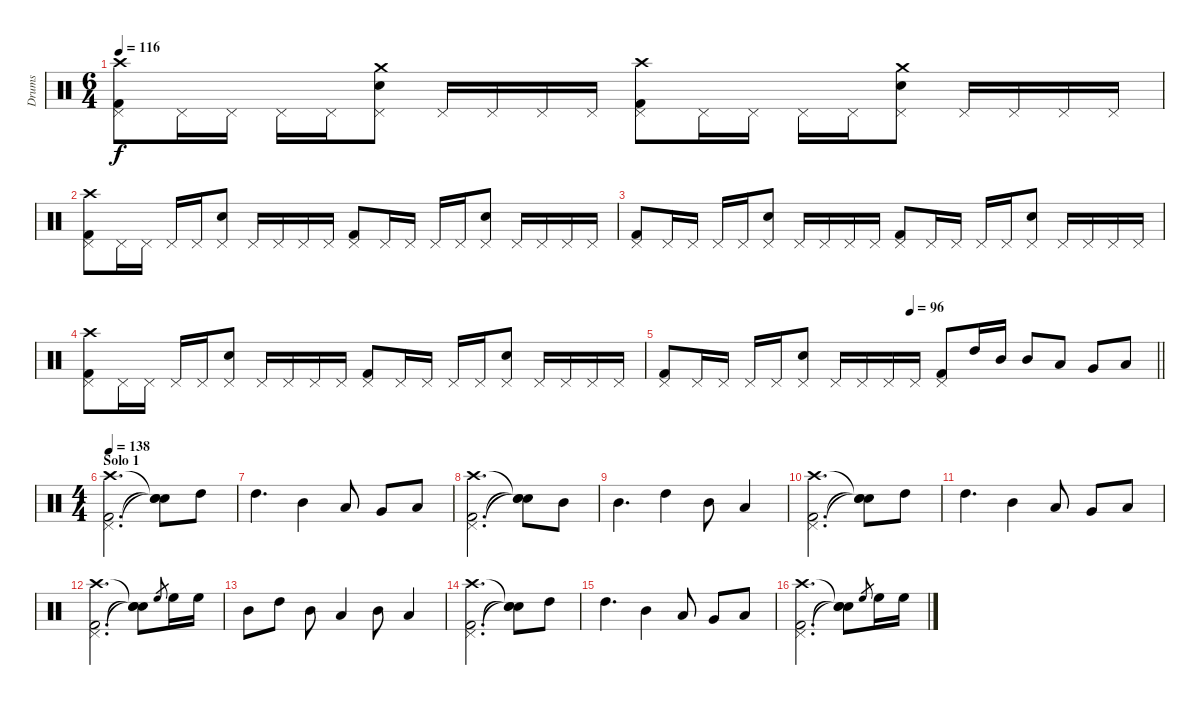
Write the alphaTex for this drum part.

\track ("Drums" "Drums") {instrument percussion}
\staff {score}
\articulation defaults
\ts (6 4)
\tempo 116
\clef neutral
\ks c
("Kick (hit) 2" "Pedal Hi-Hat (hit)" "Crash high (hit)").8{dy f} "Pedal Hi-Hat (hit)".16 "Pedal Hi-Hat (hit)".16 "Pedal Hi-Hat (hit)".16 "Pedal Hi-Hat (hit)".16 ("Snare (hit) 2" "Pedal Hi-Hat (hit)" "Crash medium (hit)").8 "Pedal Hi-Hat (hit)".16 "Pedal Hi-Hat (hit)".16 "Pedal Hi-Hat (hit)".16 "Pedal Hi-Hat (hit)".16 ("Kick (hit) 2" "Pedal Hi-Hat (hit)" "Crash high (hit)").8 "Pedal Hi-Hat (hit)".16 "Pedal Hi-Hat (hit)".16 "Pedal Hi-Hat (hit)".16 "Pedal Hi-Hat (hit)".16 ("Snare (hit) 2" "Pedal Hi-Hat (hit)" "Crash medium (hit)").8 "Pedal Hi-Hat (hit)".16 "Pedal Hi-Hat (hit)".16 "Pedal Hi-Hat (hit)".16 "Pedal Hi-Hat (hit)".16 |
("Kick (hit) 2" "Pedal Hi-Hat (hit)" "Crash high (hit)").8 "Pedal Hi-Hat (hit)".16 "Pedal Hi-Hat (hit)".16 "Pedal Hi-Hat (hit)".16 "Pedal Hi-Hat (hit)".16 ("Snare (hit) 2" "Pedal Hi-Hat (hit)").8 "Pedal Hi-Hat (hit)".16 "Pedal Hi-Hat (hit)".16 "Pedal Hi-Hat (hit)".16 "Pedal Hi-Hat (hit)".16 ("Kick (hit) 2" "Pedal Hi-Hat (hit)").8 "Pedal Hi-Hat (hit)".16 "Pedal Hi-Hat (hit)".16 "Pedal Hi-Hat (hit)".16 "Pedal Hi-Hat (hit)".16 ("Snare (hit) 2" "Pedal Hi-Hat (hit)").8 "Pedal Hi-Hat (hit)".16 "Pedal Hi-Hat (hit)".16 "Pedal Hi-Hat (hit)".16 "Pedal Hi-Hat (hit)".16 |
("Kick (hit) 2" "Pedal Hi-Hat (hit)").8 "Pedal Hi-Hat (hit)".16 "Pedal Hi-Hat (hit)".16 "Pedal Hi-Hat (hit)".16 "Pedal Hi-Hat (hit)".16 ("Snare (hit) 2" "Pedal Hi-Hat (hit)").8 "Pedal Hi-Hat (hit)".16 "Pedal Hi-Hat (hit)".16 "Pedal Hi-Hat (hit)".16 "Pedal Hi-Hat (hit)".16 ("Kick (hit) 2" "Pedal Hi-Hat (hit)").8 "Pedal Hi-Hat (hit)".16 "Pedal Hi-Hat (hit)".16 "Pedal Hi-Hat (hit)".16 "Pedal Hi-Hat (hit)".16 ("Snare (hit) 2" "Pedal Hi-Hat (hit)").8 "Pedal Hi-Hat (hit)".16 "Pedal Hi-Hat (hit)".16 "Pedal Hi-Hat (hit)".16 "Pedal Hi-Hat (hit)".16 |
("Kick (hit) 2" "Pedal Hi-Hat (hit)" "Crash high (hit)").8 "Pedal Hi-Hat (hit)".16 "Pedal Hi-Hat (hit)".16 "Pedal Hi-Hat (hit)".16 "Pedal Hi-Hat (hit)".16 ("Snare (hit) 2" "Pedal Hi-Hat (hit)").8 "Pedal Hi-Hat (hit)".16 "Pedal Hi-Hat (hit)".16 "Pedal Hi-Hat (hit)".16 "Pedal Hi-Hat (hit)".16 ("Kick (hit) 2" "Pedal Hi-Hat (hit)").8 "Pedal Hi-Hat (hit)".16 "Pedal Hi-Hat (hit)".16 "Pedal Hi-Hat (hit)".16 "Pedal Hi-Hat (hit)".16 ("Snare (hit) 2" "Pedal Hi-Hat (hit)").8 "Pedal Hi-Hat (hit)".16 "Pedal Hi-Hat (hit)".16 "Pedal Hi-Hat (hit)".16 "Pedal Hi-Hat (hit)".16 |
\tempo (96 0.5)
\barLineRight lightlight
("Kick (hit) 2" "Pedal Hi-Hat (hit)").8 "Pedal Hi-Hat (hit)".16 "Pedal Hi-Hat (hit)".16 "Pedal Hi-Hat (hit)".16 "Pedal Hi-Hat (hit)".16 ("Snare (hit) 2" "Pedal Hi-Hat (hit)").8 "Pedal Hi-Hat (hit)".16 "Pedal Hi-Hat (hit)".16 "Pedal Hi-Hat (hit)".16 "Pedal Hi-Hat (hit)".16 ("Kick (hit) 2" "Pedal Hi-Hat (hit)").8 "High Tom (hit)".16 "Mid Tom (hit)".16 "Mid Tom (hit)".8 "Low Tom (hit)".8 "Very Low Tom (hit)".8 "Low Floor Tom (hit)".8 |
\ts (4 4)
\section ("" "Solo 1")
\tempo 138
("Kick (hit) 2" "Pedal Hi-Hat (hit)" "Crash high (hit)").2{d} ("Snare (hit)"{t} "Snare (hit)"{t} "Snare (hit)"{t}).8 "High Tom (hit)".8 |
"High Tom (hit)".4{d} "Mid Tom (hit)".4 "Low Tom (hit)".8 "Very Low Tom (hit)".8 "Low Floor Tom (hit)".8 |
("Kick (hit) 2" "Pedal Hi-Hat (hit)" "Crash high (hit)").2{d} ("Snare (hit)"{t} "Snare (hit)"{t} "Snare (hit)"{t}).8 "Mid Tom (hit)".8 |
"Mid Tom (hit)".4{d} "High Tom (hit)".4 "Mid Tom (hit)".8 "Low Tom (hit)".4 |
("Kick (hit) 2" "Pedal Hi-Hat (hit)" "Crash high (hit)").2{d} ("Snare (hit)"{t} "Snare (hit)"{t} "Snare (hit)"{t}).8 "High Tom (hit)".8 |
"High Tom (hit)".4{d} "Mid Tom (hit)".4 "Low Tom (hit)".8 "Very Low Tom (hit)".8 "Low Floor Tom (hit)".8 |
("Kick (hit) 2" "Pedal Hi-Hat (hit)" "Crash high (hit)").2{d} ("Snare (hit)"{t} "Snare (hit)"{t} "Snare (hit)"{t}).8 "High Floor Tom (hit)".8{gr} "High Floor Tom (hit)".16 "High Floor Tom (hit)".16 |
"Mid Tom (hit)".8 "High Tom (hit)".8 "Mid Tom (hit)".8 "Low Tom (hit)".4 "Mid Tom (hit)".8 "Low Tom (hit)".4 |
("Kick (hit) 2" "Pedal Hi-Hat (hit)" "Crash high (hit)").2{d} ("Snare (hit)"{t} "Snare (hit)"{t} "Snare (hit)"{t}).8 "High Tom (hit)".8 |
"High Tom (hit)".4{d} "Mid Tom (hit)".4 "Low Tom (hit)".8 "Very Low Tom (hit)".8 "Low Floor Tom (hit)".8 |
("Kick (hit) 2" "Pedal Hi-Hat (hit)" "Crash high (hit)").2{d} ("Snare (hit)"{t} "Snare (hit)"{t} "Snare (hit)"{t}).8 "High Floor Tom (hit)".8{gr} "High Floor Tom (hit)".16 "High Floor Tom (hit)".16
